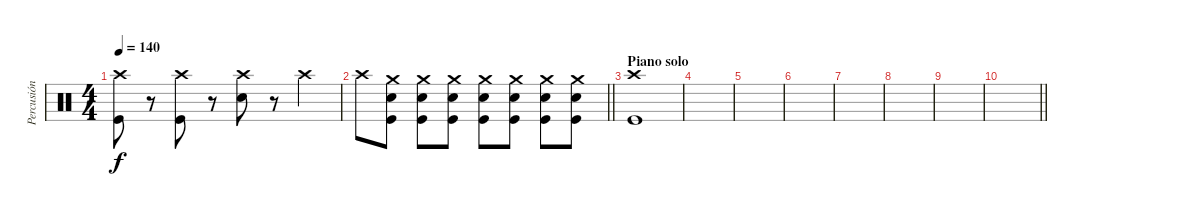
\track ("Percusión" "Percusión") {instrument percussion}
\staff {score}
\articulation defaults
\ts (4 4)
\tempo 140
\clef neutral
\ks c
("Crash high (hit)" "Kick (hit)").8{dy f} r.8 ("Crash high (hit)" "Kick (hit)").8 r.8 ("Crash high (hit)" "Snare (hit) 2").8 r.8 "Crash high (hit)".4 |
\barLineRight lightlight "Crash high (hit)".8
("Crash medium (hit)" "Snare (hit) 2" "Kick (hit)").8 ("Crash medium (hit)" "Snare (hit) 2" "Kick (hit)").8 ("Crash medium (hit)" "Snare (hit) 2" "Kick (hit)").8 ("Crash medium (hit)" "Snare (hit) 2" "Kick (hit)").8 ("Crash medium (hit)" "Snare (hit) 2" "Kick (hit)").8 ("Crash medium (hit)" "Snare (hit) 2" "Kick (hit)").8 ("Crash medium (hit)" "Snare (hit) 2" "Kick (hit)").8 |
\section ("" "Piano solo")
("Crash high (hit)" "Kick (hit)").1 |
|
|
|
|
|
|
\barLineRight lightlight
